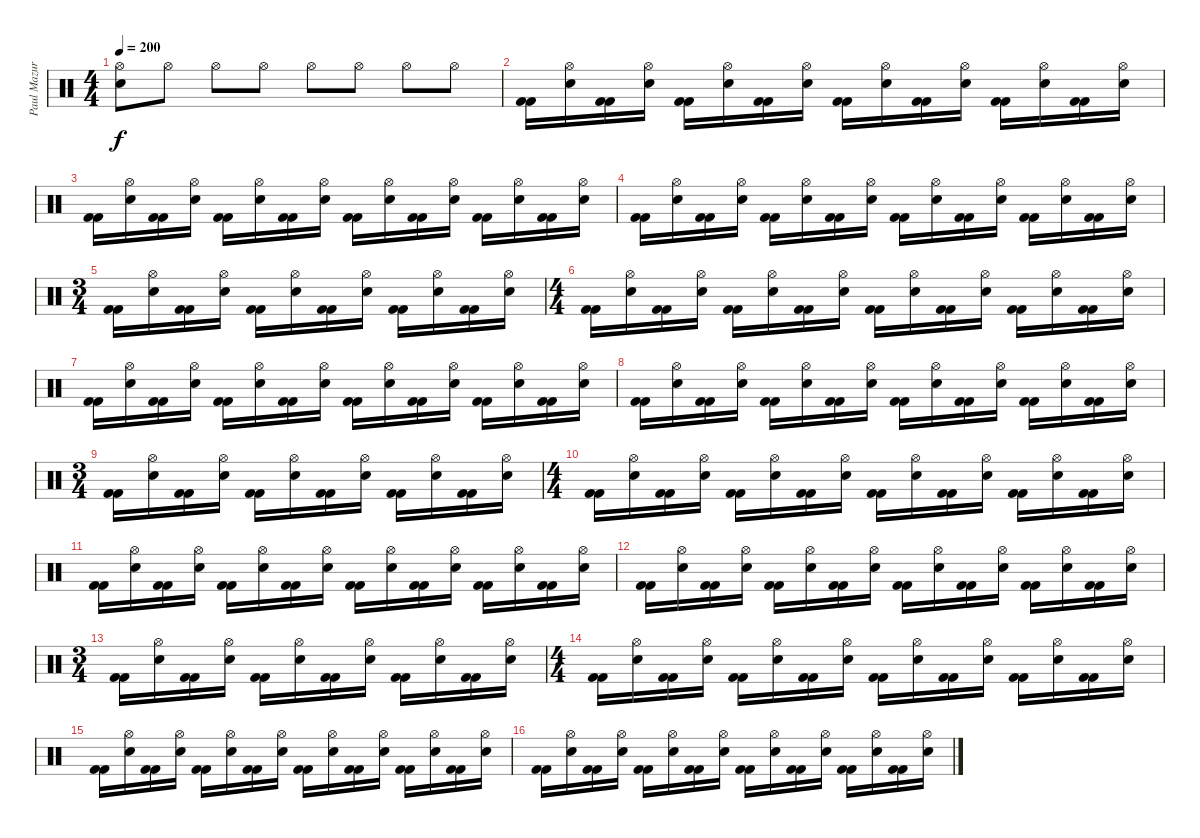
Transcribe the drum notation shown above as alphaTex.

\track ("Paul Mazurkiewicz" "Paul Mazur") {instrument percussion}
\staff {score}
\articulation defaults
\ts (4 4)
\tempo 200
\clef neutral
\ks c
("Hi-Hat (open)" "Electric Snare (hit)").8{dy f} "Hi-Hat (open)".8 "Hi-Hat (open)".8 "Hi-Hat (open)".8 "Hi-Hat (open)".8 "Hi-Hat (open)".8 "Hi-Hat (open)".8 "Hi-Hat (open)".8 |
("Kick (hit) 2" "Kick (hit) 2").16 ("Hi-Hat (open)" "Electric Snare (hit)").16 ("Kick (hit) 2" "Kick (hit) 2").16 ("Hi-Hat (open)" "Electric Snare (hit)").16 ("Kick (hit) 2" "Kick (hit) 2").16 ("Hi-Hat (open)" "Electric Snare (hit)").16 ("Kick (hit) 2" "Kick (hit) 2").16 ("Hi-Hat (open)" "Electric Snare (hit)").16 ("Kick (hit) 2" "Kick (hit) 2").16 ("Hi-Hat (open)" "Electric Snare (hit)").16 ("Kick (hit) 2" "Kick (hit) 2").16 ("Hi-Hat (open)" "Electric Snare (hit)").16 ("Kick (hit) 2" "Kick (hit) 2").16 ("Hi-Hat (open)" "Electric Snare (hit)").16 ("Kick (hit) 2" "Kick (hit) 2").16 ("Hi-Hat (open)" "Electric Snare (hit)").16 |
("Kick (hit) 2" "Kick (hit) 2").16 ("Hi-Hat (open)" "Electric Snare (hit)").16 ("Kick (hit) 2" "Kick (hit) 2").16 ("Hi-Hat (open)" "Electric Snare (hit)").16 ("Kick (hit) 2" "Kick (hit) 2").16 ("Hi-Hat (open)" "Electric Snare (hit)").16 ("Kick (hit) 2" "Kick (hit) 2").16 ("Hi-Hat (open)" "Electric Snare (hit)").16 ("Kick (hit) 2" "Kick (hit) 2").16 ("Hi-Hat (open)" "Electric Snare (hit)").16 ("Kick (hit) 2" "Kick (hit) 2").16 ("Hi-Hat (open)" "Electric Snare (hit)").16 ("Kick (hit) 2" "Kick (hit) 2").16 ("Hi-Hat (open)" "Electric Snare (hit)").16 ("Kick (hit) 2" "Kick (hit) 2").16 ("Hi-Hat (open)" "Electric Snare (hit)").16 |
("Kick (hit) 2" "Kick (hit) 2").16 ("Hi-Hat (open)" "Electric Snare (hit)").16 ("Kick (hit) 2" "Kick (hit) 2").16 ("Hi-Hat (open)" "Electric Snare (hit)").16 ("Kick (hit) 2" "Kick (hit) 2").16 ("Hi-Hat (open)" "Electric Snare (hit)").16 ("Kick (hit) 2" "Kick (hit) 2").16 ("Hi-Hat (open)" "Electric Snare (hit)").16 ("Kick (hit) 2" "Kick (hit) 2").16 ("Hi-Hat (open)" "Electric Snare (hit)").16 ("Kick (hit) 2" "Kick (hit) 2").16 ("Hi-Hat (open)" "Electric Snare (hit)").16 ("Kick (hit) 2" "Kick (hit) 2").16 ("Hi-Hat (open)" "Electric Snare (hit)").16 ("Kick (hit) 2" "Kick (hit) 2").16 ("Hi-Hat (open)" "Electric Snare (hit)").16 |
\ts (3 4)
("Kick (hit) 2" "Kick (hit) 2").16 ("Hi-Hat (open)" "Electric Snare (hit)").16 ("Kick (hit) 2" "Kick (hit) 2").16 ("Hi-Hat (open)" "Electric Snare (hit)").16 ("Kick (hit) 2" "Kick (hit) 2").16 ("Hi-Hat (open)" "Electric Snare (hit)").16 ("Kick (hit) 2" "Kick (hit) 2").16 ("Hi-Hat (open)" "Electric Snare (hit)").16 ("Kick (hit) 2" "Kick (hit) 2").16 ("Hi-Hat (open)" "Electric Snare (hit)").16 ("Kick (hit) 2" "Kick (hit) 2").16 ("Hi-Hat (open)" "Electric Snare (hit)").16 |
\ts (4 4)
("Kick (hit) 2" "Kick (hit) 2").16 ("Hi-Hat (open)" "Electric Snare (hit)").16 ("Kick (hit) 2" "Kick (hit) 2").16 ("Hi-Hat (open)" "Electric Snare (hit)").16 ("Kick (hit) 2" "Kick (hit) 2").16 ("Hi-Hat (open)" "Electric Snare (hit)").16 ("Kick (hit) 2" "Kick (hit) 2").16 ("Hi-Hat (open)" "Electric Snare (hit)").16 ("Kick (hit) 2" "Kick (hit) 2").16 ("Hi-Hat (open)" "Electric Snare (hit)").16 ("Kick (hit) 2" "Kick (hit) 2").16 ("Hi-Hat (open)" "Electric Snare (hit)").16 ("Kick (hit) 2" "Kick (hit) 2").16 ("Hi-Hat (open)" "Electric Snare (hit)").16 ("Kick (hit) 2" "Kick (hit) 2").16 ("Hi-Hat (open)" "Electric Snare (hit)").16 |
("Kick (hit) 2" "Kick (hit) 2").16 ("Hi-Hat (open)" "Electric Snare (hit)").16 ("Kick (hit) 2" "Kick (hit) 2").16 ("Hi-Hat (open)" "Electric Snare (hit)").16 ("Kick (hit) 2" "Kick (hit) 2").16 ("Hi-Hat (open)" "Electric Snare (hit)").16 ("Kick (hit) 2" "Kick (hit) 2").16 ("Hi-Hat (open)" "Electric Snare (hit)").16 ("Kick (hit) 2" "Kick (hit) 2").16 ("Hi-Hat (open)" "Electric Snare (hit)").16 ("Kick (hit) 2" "Kick (hit) 2").16 ("Hi-Hat (open)" "Electric Snare (hit)").16 ("Kick (hit) 2" "Kick (hit) 2").16 ("Hi-Hat (open)" "Electric Snare (hit)").16 ("Kick (hit) 2" "Kick (hit) 2").16 ("Hi-Hat (open)" "Electric Snare (hit)").16 |
("Kick (hit) 2" "Kick (hit) 2").16 ("Hi-Hat (open)" "Electric Snare (hit)").16 ("Kick (hit) 2" "Kick (hit) 2").16 ("Hi-Hat (open)" "Electric Snare (hit)").16 ("Kick (hit) 2" "Kick (hit) 2").16 ("Hi-Hat (open)" "Electric Snare (hit)").16 ("Kick (hit) 2" "Kick (hit) 2").16 ("Hi-Hat (open)" "Electric Snare (hit)").16 ("Kick (hit) 2" "Kick (hit) 2").16 ("Hi-Hat (open)" "Electric Snare (hit)").16 ("Kick (hit) 2" "Kick (hit) 2").16 ("Hi-Hat (open)" "Electric Snare (hit)").16 ("Kick (hit) 2" "Kick (hit) 2").16 ("Hi-Hat (open)" "Electric Snare (hit)").16 ("Kick (hit) 2" "Kick (hit) 2").16 ("Hi-Hat (open)" "Electric Snare (hit)").16 |
\ts (3 4)
("Kick (hit) 2" "Kick (hit) 2").16 ("Hi-Hat (open)" "Electric Snare (hit)").16 ("Kick (hit) 2" "Kick (hit) 2").16 ("Hi-Hat (open)" "Electric Snare (hit)").16 ("Kick (hit) 2" "Kick (hit) 2").16 ("Hi-Hat (open)" "Electric Snare (hit)").16 ("Kick (hit) 2" "Kick (hit) 2").16 ("Hi-Hat (open)" "Electric Snare (hit)").16 ("Kick (hit) 2" "Kick (hit) 2").16 ("Hi-Hat (open)" "Electric Snare (hit)").16 ("Kick (hit) 2" "Kick (hit) 2").16 ("Hi-Hat (open)" "Electric Snare (hit)").16 |
\ts (4 4)
("Kick (hit) 2" "Kick (hit) 2").16 ("Hi-Hat (open)" "Electric Snare (hit)").16 ("Kick (hit) 2" "Kick (hit) 2").16 ("Hi-Hat (open)" "Electric Snare (hit)").16 ("Kick (hit) 2" "Kick (hit) 2").16 ("Hi-Hat (open)" "Electric Snare (hit)").16 ("Kick (hit) 2" "Kick (hit) 2").16 ("Hi-Hat (open)" "Electric Snare (hit)").16 ("Kick (hit) 2" "Kick (hit) 2").16 ("Hi-Hat (open)" "Electric Snare (hit)").16 ("Kick (hit) 2" "Kick (hit) 2").16 ("Hi-Hat (open)" "Electric Snare (hit)").16 ("Kick (hit) 2" "Kick (hit) 2").16 ("Hi-Hat (open)" "Electric Snare (hit)").16 ("Kick (hit) 2" "Kick (hit) 2").16 ("Hi-Hat (open)" "Electric Snare (hit)").16 |
("Kick (hit) 2" "Kick (hit) 2").16 ("Hi-Hat (open)" "Electric Snare (hit)").16 ("Kick (hit) 2" "Kick (hit) 2").16 ("Hi-Hat (open)" "Electric Snare (hit)").16 ("Kick (hit) 2" "Kick (hit) 2").16 ("Hi-Hat (open)" "Electric Snare (hit)").16 ("Kick (hit) 2" "Kick (hit) 2").16 ("Hi-Hat (open)" "Electric Snare (hit)").16 ("Kick (hit) 2" "Kick (hit) 2").16 ("Hi-Hat (open)" "Electric Snare (hit)").16 ("Kick (hit) 2" "Kick (hit) 2").16 ("Hi-Hat (open)" "Electric Snare (hit)").16 ("Kick (hit) 2" "Kick (hit) 2").16 ("Hi-Hat (open)" "Electric Snare (hit)").16 ("Kick (hit) 2" "Kick (hit) 2").16 ("Hi-Hat (open)" "Electric Snare (hit)").16 |
("Kick (hit) 2" "Kick (hit) 2").16 ("Hi-Hat (open)" "Electric Snare (hit)").16 ("Kick (hit) 2" "Kick (hit) 2").16 ("Hi-Hat (open)" "Electric Snare (hit)").16 ("Kick (hit) 2" "Kick (hit) 2").16 ("Hi-Hat (open)" "Electric Snare (hit)").16 ("Kick (hit) 2" "Kick (hit) 2").16 ("Hi-Hat (open)" "Electric Snare (hit)").16 ("Kick (hit) 2" "Kick (hit) 2").16 ("Hi-Hat (open)" "Electric Snare (hit)").16 ("Kick (hit) 2" "Kick (hit) 2").16 ("Hi-Hat (open)" "Electric Snare (hit)").16 ("Kick (hit) 2" "Kick (hit) 2").16 ("Hi-Hat (open)" "Electric Snare (hit)").16 ("Kick (hit) 2" "Kick (hit) 2").16 ("Hi-Hat (open)" "Electric Snare (hit)").16 |
\ts (3 4)
("Kick (hit) 2" "Kick (hit) 2").16 ("Hi-Hat (open)" "Electric Snare (hit)").16 ("Kick (hit) 2" "Kick (hit) 2").16 ("Hi-Hat (open)" "Electric Snare (hit)").16 ("Kick (hit) 2" "Kick (hit) 2").16 ("Hi-Hat (open)" "Electric Snare (hit)").16 ("Kick (hit) 2" "Kick (hit) 2").16 ("Hi-Hat (open)" "Electric Snare (hit)").16 ("Kick (hit) 2" "Kick (hit) 2").16 ("Hi-Hat (open)" "Electric Snare (hit)").16 ("Kick (hit) 2" "Kick (hit) 2").16 ("Hi-Hat (open)" "Electric Snare (hit)").16 |
\ts (4 4)
("Kick (hit) 2" "Kick (hit) 2").16 ("Hi-Hat (open)" "Electric Snare (hit)").16 ("Kick (hit) 2" "Kick (hit) 2").16 ("Hi-Hat (open)" "Electric Snare (hit)").16 ("Kick (hit) 2" "Kick (hit) 2").16 ("Hi-Hat (open)" "Electric Snare (hit)").16 ("Kick (hit) 2" "Kick (hit) 2").16 ("Hi-Hat (open)" "Electric Snare (hit)").16 ("Kick (hit) 2" "Kick (hit) 2").16 ("Hi-Hat (open)" "Electric Snare (hit)").16 ("Kick (hit) 2" "Kick (hit) 2").16 ("Hi-Hat (open)" "Electric Snare (hit)").16 ("Kick (hit) 2" "Kick (hit) 2").16 ("Hi-Hat (open)" "Electric Snare (hit)").16 ("Kick (hit) 2" "Kick (hit) 2").16 ("Hi-Hat (open)" "Electric Snare (hit)").16 |
("Kick (hit) 2" "Kick (hit) 2").16 ("Hi-Hat (open)" "Electric Snare (hit)").16 ("Kick (hit) 2" "Kick (hit) 2").16 ("Hi-Hat (open)" "Electric Snare (hit)").16 ("Kick (hit) 2" "Kick (hit) 2").16 ("Hi-Hat (open)" "Electric Snare (hit)").16 ("Kick (hit) 2" "Kick (hit) 2").16 ("Hi-Hat (open)" "Electric Snare (hit)").16 ("Kick (hit) 2" "Kick (hit) 2").16 ("Hi-Hat (open)" "Electric Snare (hit)").16 ("Kick (hit) 2" "Kick (hit) 2").16 ("Hi-Hat (open)" "Electric Snare (hit)").16 ("Kick (hit) 2" "Kick (hit) 2").16 ("Hi-Hat (open)" "Electric Snare (hit)").16 ("Kick (hit) 2" "Kick (hit) 2").16 ("Hi-Hat (open)" "Electric Snare (hit)").16 |
("Kick (hit) 2" "Kick (hit) 2").16 ("Hi-Hat (open)" "Electric Snare (hit)").16 ("Kick (hit) 2" "Kick (hit) 2").16 ("Hi-Hat (open)" "Electric Snare (hit)").16 ("Kick (hit) 2" "Kick (hit) 2").16 ("Hi-Hat (open)" "Electric Snare (hit)").16 ("Kick (hit) 2" "Kick (hit) 2").16 ("Hi-Hat (open)" "Electric Snare (hit)").16 ("Kick (hit) 2" "Kick (hit) 2").16 ("Hi-Hat (open)" "Electric Snare (hit)").16 ("Kick (hit) 2" "Kick (hit) 2").16 ("Hi-Hat (open)" "Electric Snare (hit)").16 ("Kick (hit) 2" "Kick (hit) 2").16 ("Hi-Hat (open)" "Electric Snare (hit)").16 ("Kick (hit) 2" "Kick (hit) 2").16 ("Hi-Hat (open)" "Electric Snare (hit)").16
